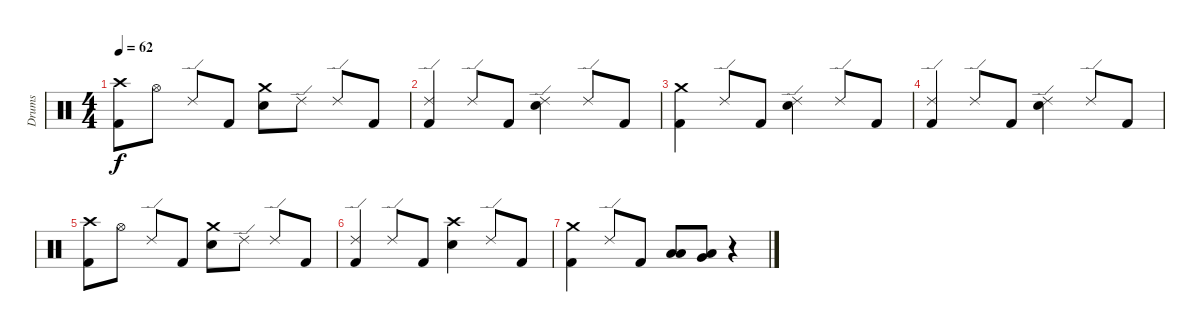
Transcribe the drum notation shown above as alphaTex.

\track ("Drums" "Drums") {instrument percussion}
\staff {score}
\articulation defaults
\ts (4 4)
\tempo 62
\clef neutral
\ks c
("Crash high (hit)" "Kick (hit) 2").8{dy f} "Hi-Hat (open)".8 "Ride (edge) 2".8 "Kick (hit) 2".8 ("Crash medium (hit)" "Electric Snare (hit)").8 "Ride (edge) 2".8 "Ride (edge) 2".8 "Kick (hit) 2".8 |
("Ride (edge) 2" "Kick (hit) 2").4 "Ride (edge) 2".8 "Kick (hit) 2".8 ("Ride (edge) 2" "Electric Snare (hit)").4 "Ride (edge) 2".8 "Kick (hit) 2".8 |
("Crash medium (hit)" "Kick (hit) 2").4 "Ride (edge) 2".8 "Kick (hit) 2".8 ("Ride (edge) 2" "Electric Snare (hit)").4 "Ride (edge) 2".8 "Kick (hit) 2".8 |
("Ride (edge) 2" "Kick (hit) 2").4 "Ride (edge) 2".8 "Kick (hit) 2".8 ("Ride (edge) 2" "Electric Snare (hit)").4 "Ride (edge) 2".8 "Kick (hit) 2".8 |
("Crash high (hit)" "Kick (hit) 2").8 "Hi-Hat (open)".8 "Ride (edge) 2".8 "Kick (hit) 2".8 ("Crash medium (hit)" "Electric Snare (hit)").8 "Ride (edge) 2".8 "Ride (edge) 2".8 "Kick (hit) 2".8 |
("Ride (edge) 2" "Kick (hit) 2").4 "Ride (edge) 2".8 "Kick (hit) 2".8 ("Crash high (hit)" "Electric Snare (hit)").4 "Ride (edge) 2".8 "Kick (hit) 2".8 |
("Crash medium (hit)" "Kick (hit) 2").4 "Ride (edge) 2".8 "Kick (hit) 2".8 ("Low Tom (hit)" "Low Floor Tom (hit)").8 ("Very Low Tom (hit)" "Low Floor Tom (hit)").8 r.4
